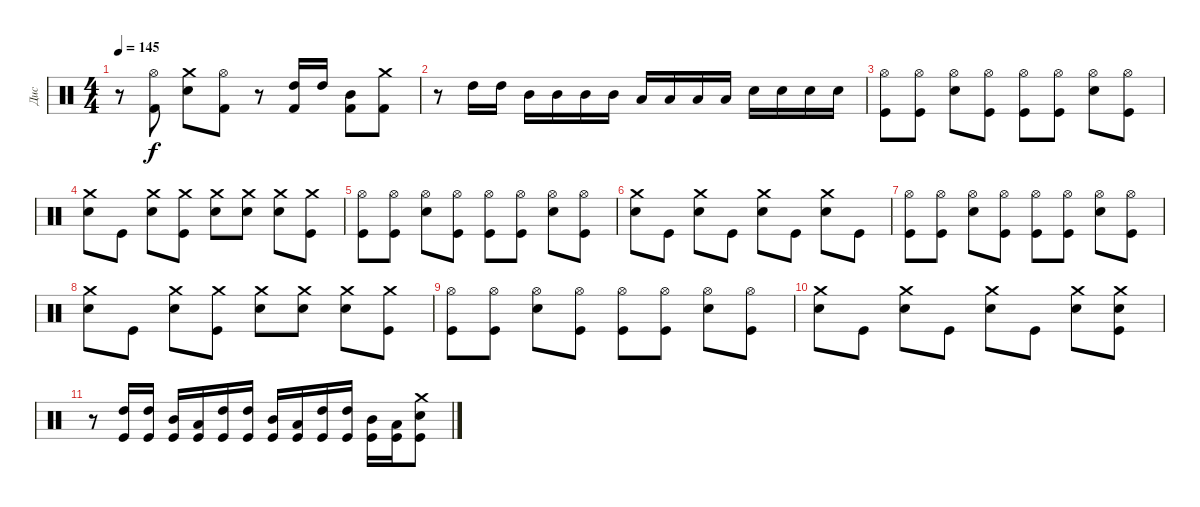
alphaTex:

\track ("Дис" "Дис") {instrument percussion}
\staff {score}
\articulation defaults
\ts (4 4)
\tempo 145
\clef neutral
\ks c
r.8{dy f} ("Hi-Hat (open)" "Kick (hit) 2").8 ("Crash medium (hit)" "Electric Snare (hit)").8 ("Hi-Hat (open)" "Kick (hit) 2").8 r.8 ("High Tom (hit)" "Kick (hit) 2").16 "High Tom (hit)".16 ("Mid Tom (hit)" "Kick (hit) 2").8 ("Crash medium (hit)" "Kick (hit) 2").8 |
r.8 "High Tom (hit)".16 "High Tom (hit)".16 "Mid Tom (hit)".16 "Mid Tom (hit)".16 "Mid Tom (hit)".16 "Mid Tom (hit)".16 "Low Tom (hit)".16 "Low Tom (hit)".16 "Low Tom (hit)".16 "Low Tom (hit)".16 "Electric Snare (hit)".16 "Electric Snare (hit)".16 "Electric Snare (hit)".16 "Electric Snare (hit)".16 |
("Hi-Hat (open)" "Kick (hit)").8 ("Hi-Hat (open)" "Kick (hit)").8 ("Hi-Hat (open)" "Electric Snare (hit)").8 ("Hi-Hat (open)" "Kick (hit)").8 ("Hi-Hat (open)" "Kick (hit)").8 ("Hi-Hat (open)" "Kick (hit)").8 ("Hi-Hat (open)" "Electric Snare (hit)").8 ("Hi-Hat (open)" "Kick (hit)").8 |
("Crash medium (hit)" "Electric Snare (hit)").8 "Kick (hit)".8 ("Crash medium (hit)" "Electric Snare (hit)").8 ("Crash medium (hit)" "Kick (hit)").8 ("Crash medium (hit)" "Electric Snare (hit)").8 ("Crash medium (hit)" "Electric Snare (hit)").8 ("Crash medium (hit)" "Electric Snare (hit)").8 ("Crash medium (hit)" "Kick (hit)").8 |
("Hi-Hat (open)" "Kick (hit)").8 ("Hi-Hat (open)" "Kick (hit)").8 ("Hi-Hat (open)" "Electric Snare (hit)").8 ("Hi-Hat (open)" "Kick (hit)").8 ("Hi-Hat (open)" "Kick (hit)").8 ("Hi-Hat (open)" "Kick (hit)").8 ("Hi-Hat (open)" "Electric Snare (hit)").8 ("Hi-Hat (open)" "Kick (hit)").8 |
("Crash medium (hit)" "Electric Snare (hit)").8 "Kick (hit)".8 ("Crash medium (hit)" "Electric Snare (hit)").8 "Kick (hit)".8 ("Crash medium (hit)" "Electric Snare (hit)").8 "Kick (hit)".8 ("Crash medium (hit)" "Electric Snare (hit)").8 "Kick (hit)".8 |
("Hi-Hat (open)" "Kick (hit)").8 ("Hi-Hat (open)" "Kick (hit)").8 ("Hi-Hat (open)" "Electric Snare (hit)").8 ("Hi-Hat (open)" "Kick (hit)").8 ("Hi-Hat (open)" "Kick (hit)").8 ("Hi-Hat (open)" "Kick (hit)").8 ("Hi-Hat (open)" "Electric Snare (hit)").8 ("Hi-Hat (open)" "Kick (hit)").8 |
("Crash medium (hit)" "Electric Snare (hit)").8 "Kick (hit)".8 ("Crash medium (hit)" "Electric Snare (hit)").8 ("Crash medium (hit)" "Kick (hit)").8 ("Crash medium (hit)" "Electric Snare (hit)").8 ("Crash medium (hit)" "Electric Snare (hit)").8 ("Crash medium (hit)" "Electric Snare (hit)").8 ("Crash medium (hit)" "Kick (hit)").8 |
("Hi-Hat (open)" "Kick (hit)").8 ("Hi-Hat (open)" "Kick (hit)").8 ("Hi-Hat (open)" "Electric Snare (hit)").8 ("Hi-Hat (open)" "Kick (hit)").8 ("Hi-Hat (open)" "Kick (hit)").8 ("Hi-Hat (open)" "Kick (hit)").8 ("Hi-Hat (open)" "Electric Snare (hit)").8 ("Hi-Hat (open)" "Kick (hit)").8 |
("Crash medium (hit)" "Electric Snare (hit)").8 "Kick (hit)".8 ("Crash medium (hit)" "Electric Snare (hit)").8 "Kick (hit)".8 ("Crash medium (hit)" "Electric Snare (hit)").8 "Kick (hit)".8 ("Crash medium (hit)" "Electric Snare (hit)").8 ("Crash medium (hit)" "Electric Snare (hit)" "Kick (hit)").8 |
r.8 ("High Tom (hit)" "Kick (hit)").16 ("High Tom (hit)" "Kick (hit)").16 ("Mid Tom (hit)" "Kick (hit)").16 ("Low Tom (hit)" "Kick (hit)").16 ("High Tom (hit)" "Kick (hit)").16 ("High Tom (hit)" "Kick (hit)").16 ("Mid Tom (hit)" "Kick (hit)").16 ("Low Tom (hit)" "Kick (hit)").16 ("High Tom (hit)" "Kick (hit)").16 ("High Tom (hit)" "Kick (hit)").16 ("Mid Tom (hit)" "Kick (hit)").16 ("Low Tom (hit)" "Kick (hit)").16 ("Crash medium (hit)" "Electric Snare (hit)" "Kick (hit)").8
